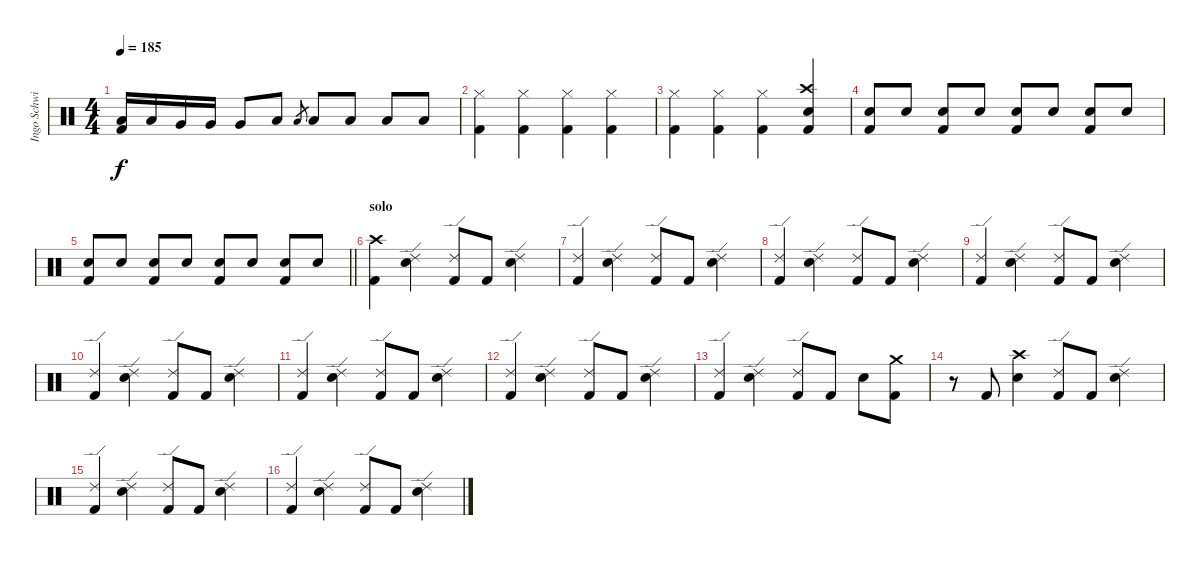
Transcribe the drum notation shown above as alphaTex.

\track ("Ingo Schwischtenberg" "Ingo Schwi") {instrument percussion}
\staff {score}
\articulation defaults
\ts (4 4)
\tempo 185
\clef neutral
\ks c
("Low Tom (hit)" "Kick (hit) 2").16{dy f} "Low Tom (hit)".16 "Very Low Tom (hit)".16 "Very Low Tom (hit)".16 "Very Low Tom (hit)".8 "Low Tom (hit)".8 "Low Floor Tom (hit)".8{gr} "Low Floor Tom (hit)".8 "Low Floor Tom (hit)".8 "Low Floor Tom (hit)".8 "Low Floor Tom (hit)".8 |
("Hi-Hat (closed)" "Kick (hit) 2").4 ("Hi-Hat (closed)" "Kick (hit) 2").4 ("Hi-Hat (closed)" "Kick (hit) 2").4 ("Hi-Hat (closed)" "Kick (hit) 2").4 |
("Hi-Hat (closed)" "Kick (hit) 2").4 ("Hi-Hat (closed)" "Kick (hit) 2").4 ("Hi-Hat (closed)" "Kick (hit) 2").4 ("Crash high (hit)" "Electric Snare (hit)" "Kick (hit) 2").4 |
("Electric Snare (hit)" "Kick (hit) 2").8 "Electric Snare (hit)".8 ("Electric Snare (hit)" "Kick (hit) 2").8 "Electric Snare (hit)".8 ("Electric Snare (hit)" "Kick (hit) 2").8 "Electric Snare (hit)".8 ("Electric Snare (hit)" "Kick (hit) 2").8 "Electric Snare (hit)".8 |
\barLineRight lightlight
("Electric Snare (hit)" "Kick (hit) 2").8 "Electric Snare (hit)".8 ("Electric Snare (hit)" "Kick (hit) 2").8 "Electric Snare (hit)".8 ("Electric Snare (hit)" "Kick (hit) 2").8 "Electric Snare (hit)".8 ("Electric Snare (hit)" "Kick (hit) 2").8 "Electric Snare (hit)".8 |
\section ("" "solo")
("Crash high (hit)" "Kick (hit) 2").4 ("Ride (edge) 2" "Electric Snare (hit)").4 ("Ride (edge) 2" "Kick (hit) 2").8 "Kick (hit) 2".8 ("Ride (edge) 2" "Electric Snare (hit)").4 |
("Ride (edge) 2" "Kick (hit) 2").4 ("Ride (edge) 2" "Electric Snare (hit)").4 ("Ride (edge) 2" "Kick (hit) 2").8 "Kick (hit) 2".8 ("Ride (edge) 2" "Electric Snare (hit)").4 |
("Ride (edge) 2" "Kick (hit) 2").4 ("Ride (edge) 2" "Electric Snare (hit)").4 ("Ride (edge) 2" "Kick (hit) 2").8 "Kick (hit) 2".8 ("Ride (edge) 2" "Electric Snare (hit)").4 |
("Ride (edge) 2" "Kick (hit) 2").4 ("Ride (edge) 2" "Electric Snare (hit)").4 ("Ride (edge) 2" "Kick (hit) 2").8 "Kick (hit) 2".8 ("Ride (edge) 2" "Electric Snare (hit)").4 |
("Ride (edge) 2" "Kick (hit) 2").4 ("Ride (edge) 2" "Electric Snare (hit)").4 ("Ride (edge) 2" "Kick (hit) 2").8 "Kick (hit) 2".8 ("Ride (edge) 2" "Electric Snare (hit)").4 |
("Ride (edge) 2" "Kick (hit) 2").4 ("Ride (edge) 2" "Electric Snare (hit)").4 ("Ride (edge) 2" "Kick (hit) 2").8 "Kick (hit) 2".8 ("Ride (edge) 2" "Electric Snare (hit)").4 |
("Ride (edge) 2" "Kick (hit) 2").4 ("Ride (edge) 2" "Electric Snare (hit)").4 ("Ride (edge) 2" "Kick (hit) 2").8 "Kick (hit) 2".8 ("Ride (edge) 2" "Electric Snare (hit)").4 |
("Ride (edge) 2" "Kick (hit) 2").4 ("Ride (edge) 2" "Electric Snare (hit)").4 ("Ride (edge) 2" "Kick (hit) 2").8 "Kick (hit) 2".8 "Electric Snare (hit)".8 ("Crash medium (hit)" "Kick (hit) 2").8 |
r.8 "Kick (hit) 2".8 ("Crash high (hit)" "Electric Snare (hit)").4 ("Ride (edge) 2" "Kick (hit) 2").8 "Kick (hit) 2".8 ("Ride (edge) 2" "Electric Snare (hit)").4 |
("Ride (edge) 2" "Kick (hit) 2").4 ("Ride (edge) 2" "Electric Snare (hit)").4 ("Ride (edge) 2" "Kick (hit) 2").8 "Kick (hit) 2".8 ("Ride (edge) 2" "Electric Snare (hit)").4 |
("Ride (edge) 2" "Kick (hit) 2").4 ("Ride (edge) 2" "Electric Snare (hit)").4 ("Ride (edge) 2" "Kick (hit) 2").8 "Kick (hit) 2".8 ("Ride (edge) 2" "Electric Snare (hit)").4
